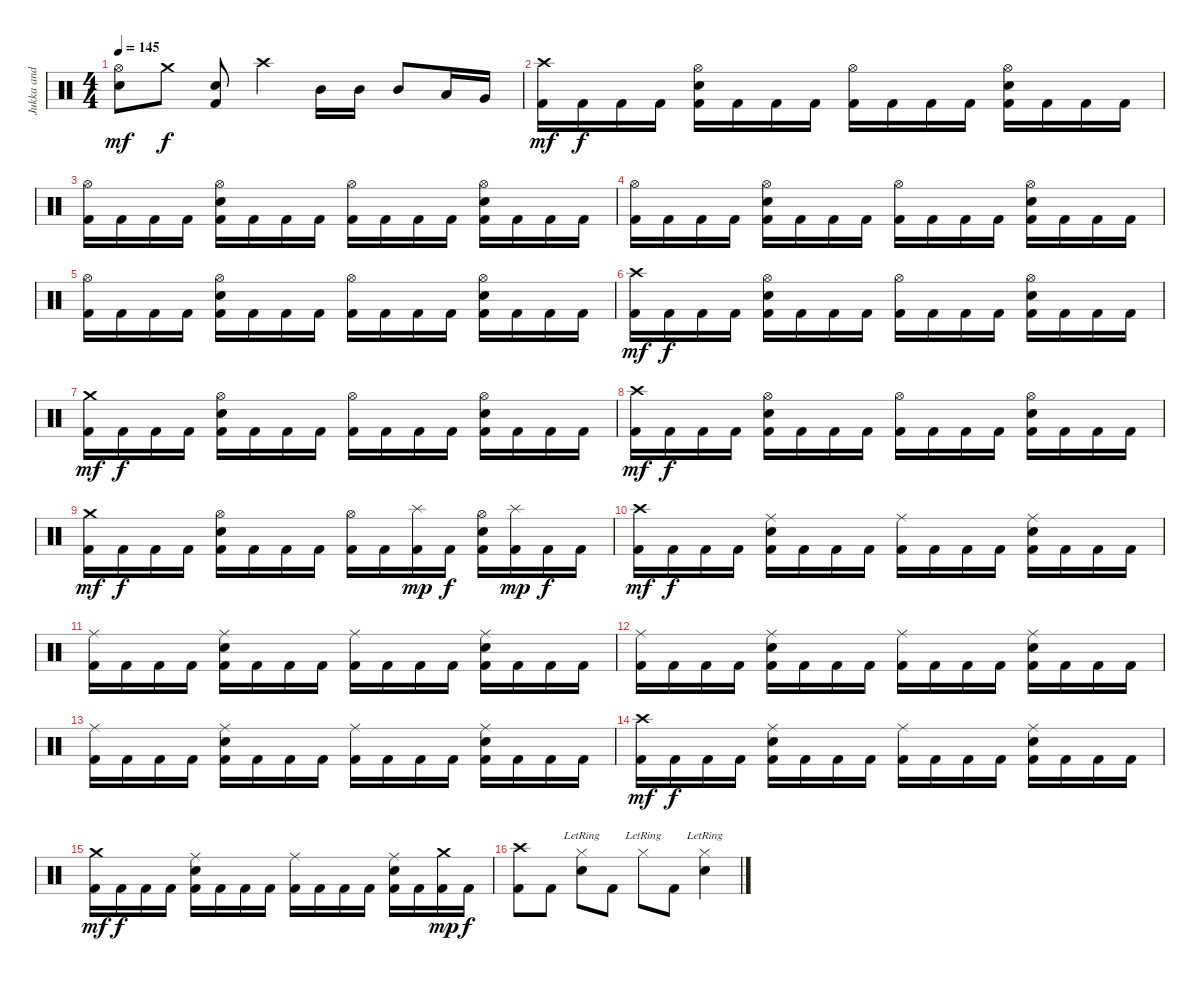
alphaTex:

\track ("Jukka and his drums" "Jukka and ") {instrument percussion}
\staff {score}
\articulation defaults
\ts (4 4)
\tempo 145
\clef neutral
\ks c
("Hi-Hat (open)" "Snare (hit) 2").8{dy mf} "Crash medium (hit)".8{dy f} ("Kick (hit) 2" "Snare (hit) 2").8 "Crash high (hit)".4 "Mid Tom (hit)".16 "Mid Tom (hit)".16 "Mid Tom (hit)".8 "Low Tom (hit)".16 "Very Low Tom (hit)".16 |
("Kick (hit) 2" "Crash high (hit)").16{dy mf} "Kick (hit) 2".16{dy f} "Kick (hit) 2".16 "Kick (hit) 2".16 ("Kick (hit) 2" "Hi-Hat (open)" "Snare (hit) 2").16 "Kick (hit) 2".16 "Kick (hit) 2".16 "Kick (hit) 2".16 ("Kick (hit) 2" "Hi-Hat (open)").16 "Kick (hit) 2".16 "Kick (hit) 2".16 "Kick (hit) 2".16 ("Kick (hit) 2" "Hi-Hat (open)" "Snare (hit) 2").16 "Kick (hit) 2".16 "Kick (hit) 2".16 "Kick (hit) 2".16 |
("Kick (hit) 2" "Hi-Hat (open)").16 "Kick (hit) 2".16 "Kick (hit) 2".16 "Kick (hit) 2".16 ("Kick (hit) 2" "Hi-Hat (open)" "Snare (hit) 2").16 "Kick (hit) 2".16 "Kick (hit) 2".16 "Kick (hit) 2".16 ("Kick (hit) 2" "Hi-Hat (open)").16 "Kick (hit) 2".16 "Kick (hit) 2".16 "Kick (hit) 2".16 ("Kick (hit) 2" "Hi-Hat (open)" "Snare (hit) 2").16 "Kick (hit) 2".16 "Kick (hit) 2".16 "Kick (hit) 2".16 |
("Kick (hit) 2" "Hi-Hat (open)").16 "Kick (hit) 2".16 "Kick (hit) 2".16 "Kick (hit) 2".16 ("Kick (hit) 2" "Hi-Hat (open)" "Snare (hit) 2").16 "Kick (hit) 2".16 "Kick (hit) 2".16 "Kick (hit) 2".16 ("Kick (hit) 2" "Hi-Hat (open)").16 "Kick (hit) 2".16 "Kick (hit) 2".16 "Kick (hit) 2".16 ("Kick (hit) 2" "Hi-Hat (open)" "Snare (hit) 2").16 "Kick (hit) 2".16 "Kick (hit) 2".16 "Kick (hit) 2".16 |
("Kick (hit) 2" "Hi-Hat (open)").16 "Kick (hit) 2".16 "Kick (hit) 2".16 "Kick (hit) 2".16 ("Kick (hit) 2" "Hi-Hat (open)" "Snare (hit) 2").16 "Kick (hit) 2".16 "Kick (hit) 2".16 "Kick (hit) 2".16 ("Kick (hit) 2" "Hi-Hat (open)").16 "Kick (hit) 2".16 "Kick (hit) 2".16 "Kick (hit) 2".16 ("Kick (hit) 2" "Hi-Hat (open)" "Snare (hit) 2").16 "Kick (hit) 2".16 "Kick (hit) 2".16 "Kick (hit) 2".16 |
("Kick (hit) 2" "Crash high (hit)").16{dy mf} "Kick (hit) 2".16{dy f} "Kick (hit) 2".16 "Kick (hit) 2".16 ("Kick (hit) 2" "Hi-Hat (open)" "Snare (hit) 2").16 "Kick (hit) 2".16 "Kick (hit) 2".16 "Kick (hit) 2".16 ("Kick (hit) 2" "Hi-Hat (open)").16 "Kick (hit) 2".16 "Kick (hit) 2".16 "Kick (hit) 2".16 ("Kick (hit) 2" "Hi-Hat (open)" "Snare (hit) 2").16 "Kick (hit) 2".16 "Kick (hit) 2".16 "Kick (hit) 2".16 |
("Kick (hit) 2" "Crash medium (hit)").16{dy mf} "Kick (hit) 2".16{dy f} "Kick (hit) 2".16 "Kick (hit) 2".16 ("Kick (hit) 2" "Hi-Hat (open)" "Snare (hit) 2").16 "Kick (hit) 2".16 "Kick (hit) 2".16 "Kick (hit) 2".16 ("Kick (hit) 2" "Hi-Hat (open)").16 "Kick (hit) 2".16 "Kick (hit) 2".16 "Kick (hit) 2".16 ("Kick (hit) 2" "Hi-Hat (open)" "Snare (hit) 2").16 "Kick (hit) 2".16 "Kick (hit) 2".16 "Kick (hit) 2".16 |
("Kick (hit) 2" "Crash high (hit)").16{dy mf} "Kick (hit) 2".16{dy f} "Kick (hit) 2".16 "Kick (hit) 2".16 ("Kick (hit) 2" "Hi-Hat (open)" "Snare (hit) 2").16 "Kick (hit) 2".16 "Kick (hit) 2".16 "Kick (hit) 2".16 ("Kick (hit) 2" "Hi-Hat (open)").16 "Kick (hit) 2".16 "Kick (hit) 2".16 "Kick (hit) 2".16 ("Kick (hit) 2" "Hi-Hat (open)" "Snare (hit) 2").16 "Kick (hit) 2".16 "Kick (hit) 2".16 "Kick (hit) 2".16 |
("Kick (hit) 2" "Crash medium (hit)").16{dy mf} "Kick (hit) 2".16{dy f} "Kick (hit) 2".16 "Kick (hit) 2".16 ("Kick (hit) 2" "Hi-Hat (open)" "Snare (hit) 2").16 "Kick (hit) 2".16 "Kick (hit) 2".16 "Kick (hit) 2".16 ("Kick (hit) 2" "Hi-Hat (open)").16 "Kick (hit) 2".16 ("Kick (hit) 2" "Splash (hit)").16{dy mp} "Kick (hit) 2".16{dy f} ("Kick (hit) 2" "Hi-Hat (open)" "Snare (hit) 2").16 ("Kick (hit) 2" "Splash (hit)").16{dy mp} "Kick (hit) 2".16{dy f} "Kick (hit) 2".16 |
("Kick (hit) 2" "Crash high (hit)").16{dy mf} "Kick (hit) 2".16{dy f} "Kick (hit) 2".16 "Kick (hit) 2".16 ("Kick (hit) 2" "Ride (middle)" "Snare (hit) 2").16 "Kick (hit) 2".16 "Kick (hit) 2".16 "Kick (hit) 2".16 ("Kick (hit) 2" "Ride (middle)").16 "Kick (hit) 2".16 "Kick (hit) 2".16 "Kick (hit) 2".16 ("Kick (hit) 2" "Ride (middle)" "Snare (hit) 2").16 "Kick (hit) 2".16 "Kick (hit) 2".16 "Kick (hit) 2".16 |
("Kick (hit) 2" "Ride (middle)").16 "Kick (hit) 2".16 "Kick (hit) 2".16 "Kick (hit) 2".16 ("Kick (hit) 2" "Ride (middle)" "Snare (hit) 2").16 "Kick (hit) 2".16 "Kick (hit) 2".16 "Kick (hit) 2".16 ("Kick (hit) 2" "Ride (middle)").16 "Kick (hit) 2".16 "Kick (hit) 2".16 "Kick (hit) 2".16 ("Kick (hit) 2" "Ride (middle)" "Snare (hit) 2").16 "Kick (hit) 2".16 "Kick (hit) 2".16 "Kick (hit) 2".16 |
("Kick (hit) 2" "Ride (middle)").16 "Kick (hit) 2".16 "Kick (hit) 2".16 "Kick (hit) 2".16 ("Kick (hit) 2" "Ride (middle)" "Snare (hit) 2").16 "Kick (hit) 2".16 "Kick (hit) 2".16 "Kick (hit) 2".16 ("Kick (hit) 2" "Ride (middle)").16 "Kick (hit) 2".16 "Kick (hit) 2".16 "Kick (hit) 2".16 ("Kick (hit) 2" "Ride (middle)" "Snare (hit) 2").16 "Kick (hit) 2".16 "Kick (hit) 2".16 "Kick (hit) 2".16 |
("Kick (hit) 2" "Ride (middle)").16 "Kick (hit) 2".16 "Kick (hit) 2".16 "Kick (hit) 2".16 ("Kick (hit) 2" "Ride (middle)" "Snare (hit) 2").16 "Kick (hit) 2".16 "Kick (hit) 2".16 "Kick (hit) 2".16 ("Kick (hit) 2" "Ride (middle)").16 "Kick (hit) 2".16 "Kick (hit) 2".16 "Kick (hit) 2".16 ("Kick (hit) 2" "Ride (middle)" "Snare (hit) 2").16 "Kick (hit) 2".16 "Kick (hit) 2".16 "Kick (hit) 2".16 |
("Kick (hit) 2" "Crash high (hit)").16{dy mf} "Kick (hit) 2".16{dy f} "Kick (hit) 2".16 "Kick (hit) 2".16 ("Kick (hit) 2" "Ride (middle)" "Snare (hit) 2").16 "Kick (hit) 2".16 "Kick (hit) 2".16 "Kick (hit) 2".16 ("Kick (hit) 2" "Ride (middle)").16 "Kick (hit) 2".16 "Kick (hit) 2".16 "Kick (hit) 2".16 ("Kick (hit) 2" "Ride (middle)" "Snare (hit) 2").16 "Kick (hit) 2".16 "Kick (hit) 2".16 "Kick (hit) 2".16 |
("Kick (hit) 2" "Crash medium (hit)").16{dy mf} "Kick (hit) 2".16{dy f} "Kick (hit) 2".16 "Kick (hit) 2".16 ("Kick (hit) 2" "Ride (middle)" "Snare (hit) 2").16 "Kick (hit) 2".16 "Kick (hit) 2".16 "Kick (hit) 2".16 ("Kick (hit) 2" "Ride (middle)").16 "Kick (hit) 2".16 "Kick (hit) 2".16 "Kick (hit) 2".16 ("Kick (hit) 2" "Ride (middle)" "Snare (hit) 2").16 "Kick (hit) 2".16 ("Kick (hit) 2" "Crash medium (hit)").16{dy mp} "Kick (hit) 2".16{dy f} |
("Kick (hit) 2" "Crash high (hit)").8 "Kick (hit) 2".8 ("Hi-Hat (closed)"{lr} "Snare (hit) 2").8 "Kick (hit) 2".8 "Hi-Hat (closed)"{lr}.8 "Kick (hit) 2".8 ("Hi-Hat (closed)"{lr} "Snare (hit) 2").4
